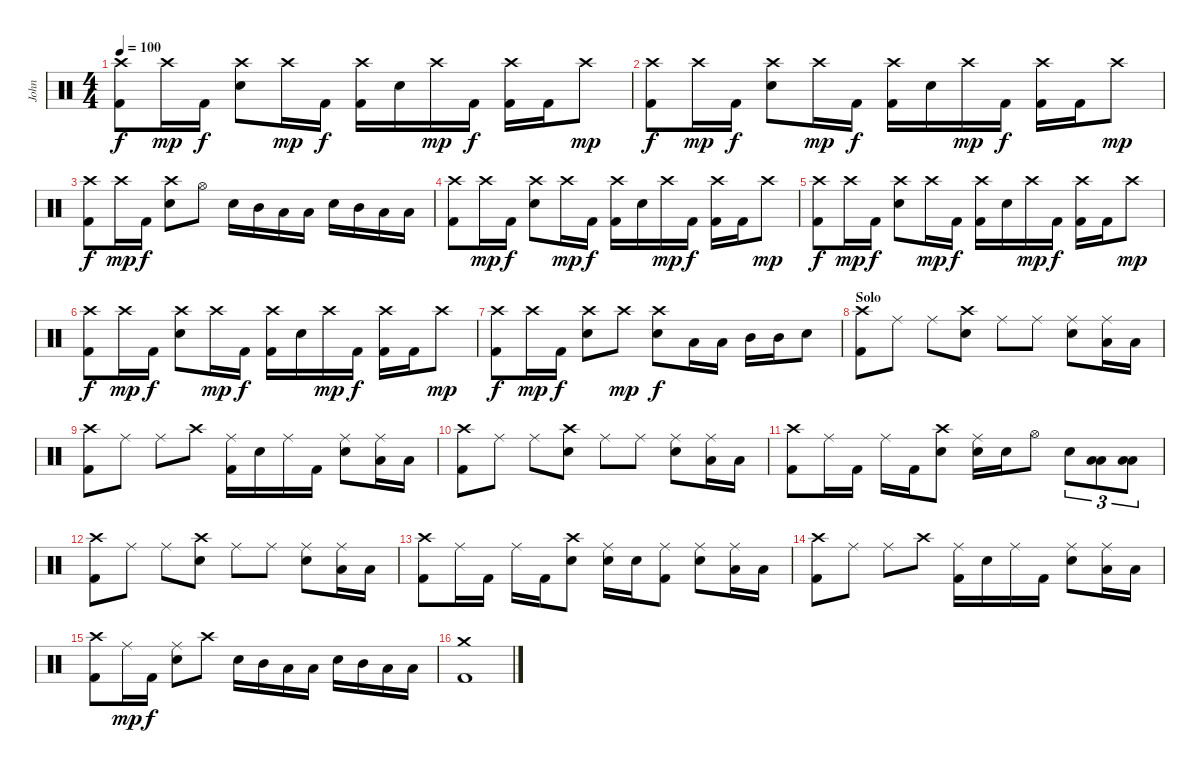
\track ("John" "John") {instrument percussion}
\staff {score}
\articulation defaults
\ts (4 4)
\tempo 100
\clef neutral
\ks c
("Crash high (hit)" "Kick (hit) 2").8{dy f} "Crash high (hit)".16{dy mp} "Kick (hit) 2".16{dy f} ("Crash high (hit)" "Electric Snare (hit)").8 "Crash high (hit)".16{dy mp} "Kick (hit) 2".16{dy f} ("Crash high (hit)" "Kick (hit) 2").16 "Electric Snare (hit)".16 "Crash high (hit)".16{dy mp} "Kick (hit) 2".16{dy f} ("Crash high (hit)" "Kick (hit) 2").16 "Kick (hit) 2".16 "Crash high (hit)".8{dy mp} |
("Crash high (hit)" "Kick (hit) 2").8{dy f} "Crash high (hit)".16{dy mp} "Kick (hit) 2".16{dy f} ("Crash high (hit)" "Electric Snare (hit)").8 "Crash high (hit)".16{dy mp} "Kick (hit) 2".16{dy f} ("Crash high (hit)" "Kick (hit) 2").16 "Electric Snare (hit)".16 "Crash high (hit)".16{dy mp} "Kick (hit) 2".16{dy f} ("Crash high (hit)" "Kick (hit) 2").16 "Kick (hit) 2".16 "Crash high (hit)".8{dy mp} |
("Crash high (hit)" "Kick (hit) 2").8{dy f} "Crash high (hit)".16{dy mp} "Kick (hit) 2".16{dy f} ("Crash high (hit)" "Electric Snare (hit)").8 "Hi-Hat (open)".8 "Electric Snare (hit)".16 "Mid Tom (hit)".16 "Low Tom (hit)".16 "Low Floor Tom (hit)".16 "Electric Snare (hit)".16 "Mid Tom (hit)".16 "Low Tom (hit)".16 "Low Floor Tom (hit)".16 |
("Crash high (hit)" "Kick (hit) 2").8 "Crash high (hit)".16{dy mp} "Kick (hit) 2".16{dy f} ("Crash high (hit)" "Electric Snare (hit)").8 "Crash high (hit)".16{dy mp} "Kick (hit) 2".16{dy f} ("Crash high (hit)" "Kick (hit) 2").16 "Electric Snare (hit)".16 "Crash high (hit)".16{dy mp} "Kick (hit) 2".16{dy f} ("Crash high (hit)" "Kick (hit) 2").16 "Kick (hit) 2".16 "Crash high (hit)".8{dy mp} |
("Crash high (hit)" "Kick (hit) 2").8{dy f} "Crash high (hit)".16{dy mp} "Kick (hit) 2".16{dy f} ("Crash high (hit)" "Electric Snare (hit)").8 "Crash high (hit)".16{dy mp} "Kick (hit) 2".16{dy f} ("Crash high (hit)" "Kick (hit) 2").16 "Electric Snare (hit)".16 "Crash high (hit)".16{dy mp} "Kick (hit) 2".16{dy f} ("Crash high (hit)" "Kick (hit) 2").16 "Kick (hit) 2".16 "Crash high (hit)".8{dy mp} |
("Crash high (hit)" "Kick (hit) 2").8{dy f} "Crash high (hit)".16{dy mp} "Kick (hit) 2".16{dy f} ("Crash high (hit)" "Electric Snare (hit)").8 "Crash high (hit)".16{dy mp} "Kick (hit) 2".16{dy f} ("Crash high (hit)" "Kick (hit) 2").16 "Electric Snare (hit)".16 "Crash high (hit)".16{dy mp} "Kick (hit) 2".16{dy f} ("Crash high (hit)" "Kick (hit) 2").16 "Kick (hit) 2".16 "Crash high (hit)".8{dy mp} |
("Crash high (hit)" "Kick (hit) 2").8{dy f} "Crash high (hit)".16{dy mp} "Kick (hit) 2".16{dy f} ("Crash high (hit)" "Electric Snare (hit)").8 "Crash high (hit)".8{dy mp} ("Crash high (hit)" "Electric Snare (hit)").8{dy f} "Low Tom (hit)".16 "Low Floor Tom (hit)".16 "Mid Tom (hit)".16 "Mid Tom (hit)".16 "Electric Snare (hit)".8 |
\section ("" "Solo")
("Crash high (hit)" "Kick (hit) 2").8 "Ride (middle)".8 "Ride (middle)".8 ("Crash high (hit)" "Electric Snare (hit)").8 "Ride (middle)".8 "Ride (middle)".8 ("Ride (middle)" "Electric Snare (hit)").8 ("Ride (middle)" "Low Floor Tom (hit)").16 "Low Floor Tom (hit)".16 |
("Crash high (hit)" "Kick (hit) 2").8 "Ride (middle)".8 "Ride (middle)".8 "Crash high (hit)".8 ("Ride (middle)" "Kick (hit) 2").16 "Electric Snare (hit)".16 "Ride (middle)".16 "Kick (hit) 2".16 ("Ride (middle)" "Electric Snare (hit)").8 ("Ride (middle)" "Low Floor Tom (hit)").16 "Low Floor Tom (hit)".16 |
("Crash high (hit)" "Kick (hit) 2").8 "Ride (middle)".8 "Ride (middle)".8 ("Crash high (hit)" "Electric Snare (hit)").8 "Ride (middle)".8 "Ride (middle)".8 ("Ride (middle)" "Electric Snare (hit)").8 ("Ride (middle)" "Low Floor Tom (hit)").16 "Low Floor Tom (hit)".16 |
("Crash high (hit)" "Kick (hit) 2").8 "Ride (middle)".16 "Kick (hit) 2".16 "Ride (middle)".16 "Kick (hit) 2".16 ("Crash high (hit)" "Electric Snare (hit)").8 ("Ride (middle)" "Electric Snare (hit)").16 "Electric Snare (hit)".16 "Hi-Hat (open)".8 "Electric Snare (hit)".8{tu (3 2)} ("Low Tom (hit)" "Low Floor Tom (hit)").8{tu (3 2)} ("Low Tom (hit)" "Low Floor Tom (hit)").8{tu (3 2)} |
("Crash high (hit)" "Kick (hit) 2").8 "Ride (middle)".8 "Ride (middle)".8 ("Crash high (hit)" "Electric Snare (hit)").8 "Ride (middle)".8 "Ride (middle)".8 ("Ride (middle)" "Electric Snare (hit)").8 ("Ride (middle)" "Low Floor Tom (hit)").16 "Low Floor Tom (hit)".16 |
("Crash high (hit)" "Kick (hit) 2").8 "Ride (middle)".16 "Kick (hit) 2".16 "Ride (middle)".16 "Kick (hit) 2".16 ("Crash high (hit)" "Electric Snare (hit)").8 ("Ride (middle)" "Electric Snare (hit)").16 "Electric Snare (hit)".16 ("Ride (middle)" "Kick (hit) 2").8 ("Ride (middle)" "Electric Snare (hit)").8 ("Ride (middle)" "Low Floor Tom (hit)").16 "Low Floor Tom (hit)".16 |
("Crash high (hit)" "Kick (hit) 2").8 "Ride (middle)".8 "Ride (middle)".8 "Crash high (hit)".8 ("Ride (middle)" "Kick (hit) 2").16 "Electric Snare (hit)".16 "Ride (middle)".16 "Kick (hit) 2".16 ("Ride (middle)" "Electric Snare (hit)").8 ("Ride (middle)" "Low Floor Tom (hit)").16 "Low Floor Tom (hit)".16 |
("Crash high (hit)" "Kick (hit) 2").8 "Ride (middle)".16{dy mp} "Kick (hit) 2".16{dy f} ("Ride (middle)" "Electric Snare (hit)").8 "Crash high (hit)".8 "Electric Snare (hit)".16 "Mid Tom (hit)".16 "Low Tom (hit)".16 "Low Floor Tom (hit)".16 "Electric Snare (hit)".16 "Mid Tom (hit)".16 "Low Tom (hit)".16 "Low Floor Tom (hit)".16 |
("Crash medium (hit)" "Kick (hit) 2").1
